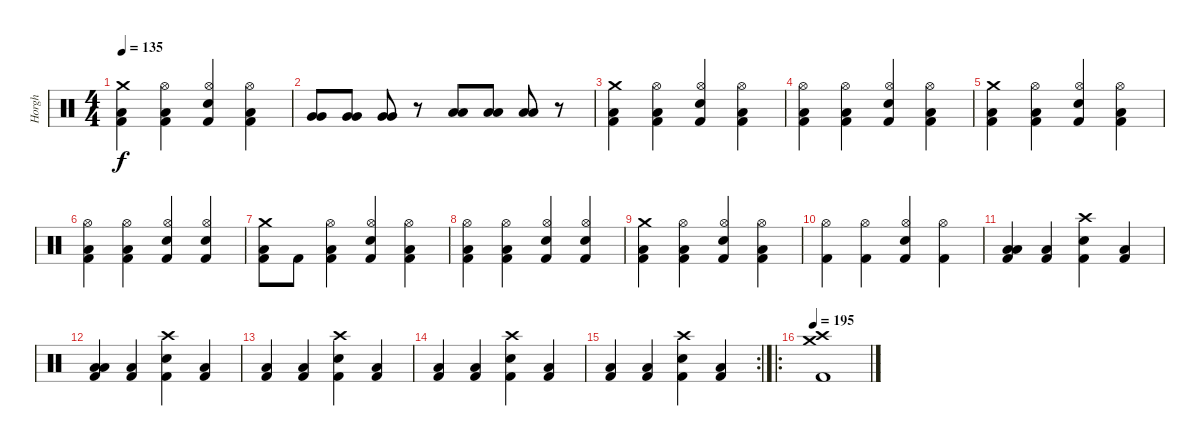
\track ("Horgh" "Horgh") {instrument percussion}
\staff {score}
\articulation defaults
\ts (4 4)
\tempo 135
\clef neutral
\ks c
("Crash medium (hit)" "Low Floor Tom (hit)" "Kick (hit) 2").4{dy f} ("Hi-Hat (open)" "Low Floor Tom (hit)" "Kick (hit) 2").4 ("Hi-Hat (open)" "Electric Snare (hit)" "Kick (hit) 2").4 ("Hi-Hat (open)" "Low Floor Tom (hit)" "Kick (hit) 2").4 |
("Very Low Tom (hit)" "Very Low Tom (hit)").8 ("Very Low Tom (hit)" "Very Low Tom (hit)").8 ("Very Low Tom (hit)" "Very Low Tom (hit)").8 r.8 ("Low Floor Tom (hit)" "Low Floor Tom (hit)").8 ("Low Floor Tom (hit)" "Low Floor Tom (hit)").8 ("Low Floor Tom (hit)" "Low Floor Tom (hit)").8 r.8 |
("Crash medium (hit)" "Low Floor Tom (hit)" "Kick (hit) 2").4 ("Hi-Hat (open)" "Low Floor Tom (hit)" "Kick (hit) 2").4 ("Hi-Hat (open)" "Electric Snare (hit)" "Kick (hit) 2").4 ("Hi-Hat (open)" "Low Floor Tom (hit)" "Kick (hit) 2").4 |
("Hi-Hat (open)" "Low Floor Tom (hit)" "Kick (hit) 2").4 ("Hi-Hat (open)" "Low Floor Tom (hit)" "Kick (hit) 2").4 ("Hi-Hat (open)" "Electric Snare (hit)" "Kick (hit) 2").4 ("Hi-Hat (open)" "Low Floor Tom (hit)" "Kick (hit) 2").4 |
("Crash medium (hit)" "Low Floor Tom (hit)" "Kick (hit) 2").4 ("Hi-Hat (open)" "Low Floor Tom (hit)" "Kick (hit) 2").4 ("Hi-Hat (open)" "Electric Snare (hit)" "Kick (hit) 2").4 ("Hi-Hat (open)" "Low Floor Tom (hit)" "Kick (hit) 2").4 |
("Hi-Hat (open)" "Low Floor Tom (hit)" "Kick (hit) 2").4 ("Hi-Hat (open)" "Low Floor Tom (hit)" "Kick (hit) 2").4 ("Hi-Hat (open)" "Electric Snare (hit)" "Kick (hit) 2").4 ("Hi-Hat (open)" "Electric Snare (hit)" "Kick (hit) 2").4 |
("Crash medium (hit)" "Low Floor Tom (hit)" "Kick (hit) 2").8 "Kick (hit) 2".8 ("Hi-Hat (open)" "Low Floor Tom (hit)" "Kick (hit) 2").4 ("Hi-Hat (open)" "Electric Snare (hit)" "Kick (hit) 2").4 ("Hi-Hat (open)" "Low Floor Tom (hit)" "Kick (hit) 2").4 |
("Hi-Hat (open)" "Low Floor Tom (hit)" "Kick (hit) 2").4 ("Hi-Hat (open)" "Low Floor Tom (hit)" "Kick (hit) 2").4 ("Hi-Hat (open)" "Electric Snare (hit)" "Kick (hit) 2").4 ("Hi-Hat (open)" "Electric Snare (hit)" "Kick (hit) 2").4 |
("Crash medium (hit)" "Low Floor Tom (hit)" "Kick (hit) 2").4 ("Hi-Hat (open)" "Low Floor Tom (hit)" "Kick (hit) 2").4 ("Hi-Hat (open)" "Electric Snare (hit)" "Kick (hit) 2").4 ("Hi-Hat (open)" "Low Floor Tom (hit)" "Kick (hit) 2").4 |
("Hi-Hat (open)" "Kick (hit) 2").4 ("Hi-Hat (open)" "Kick (hit) 2").4 ("Hi-Hat (open)" "Electric Snare (hit)" "Kick (hit) 2").4 ("Hi-Hat (open)" "Kick (hit) 2").4 |
("Low Floor Tom (hit)" "Low Floor Tom (hit)" "Kick (hit) 2").4 ("Low Floor Tom (hit)" "Kick (hit) 2").4 ("Crash high (hit)" "Electric Snare (hit)" "Kick (hit) 2").4 ("Low Floor Tom (hit)" "Kick (hit) 2").4 |
("Low Floor Tom (hit)" "Low Floor Tom (hit)" "Kick (hit) 2").4 ("Low Floor Tom (hit)" "Kick (hit) 2").4 ("Crash high (hit)" "Electric Snare (hit)" "Kick (hit) 2").4 ("Low Floor Tom (hit)" "Kick (hit) 2").4 |
("Low Floor Tom (hit)" "Kick (hit) 2").4 ("Low Floor Tom (hit)" "Kick (hit) 2").4 ("Crash high (hit)" "Electric Snare (hit)" "Kick (hit) 2").4 ("Low Floor Tom (hit)" "Kick (hit) 2").4 |
("Low Floor Tom (hit)" "Kick (hit) 2").4 ("Low Floor Tom (hit)" "Kick (hit) 2").4 ("Crash high (hit)" "Electric Snare (hit)" "Kick (hit) 2").4 ("Low Floor Tom (hit)" "Kick (hit) 2").4 |
\rc 2
("Low Floor Tom (hit)" "Kick (hit) 2").4 ("Low Floor Tom (hit)" "Kick (hit) 2").4 ("Crash high (hit)" "Electric Snare (hit)" "Kick (hit) 2").4 ("Low Floor Tom (hit)" "Kick (hit) 2").4 |
\ro
\tempo 195
("Crash high (hit)" "Crash medium (hit)" "Kick (hit) 2").1
